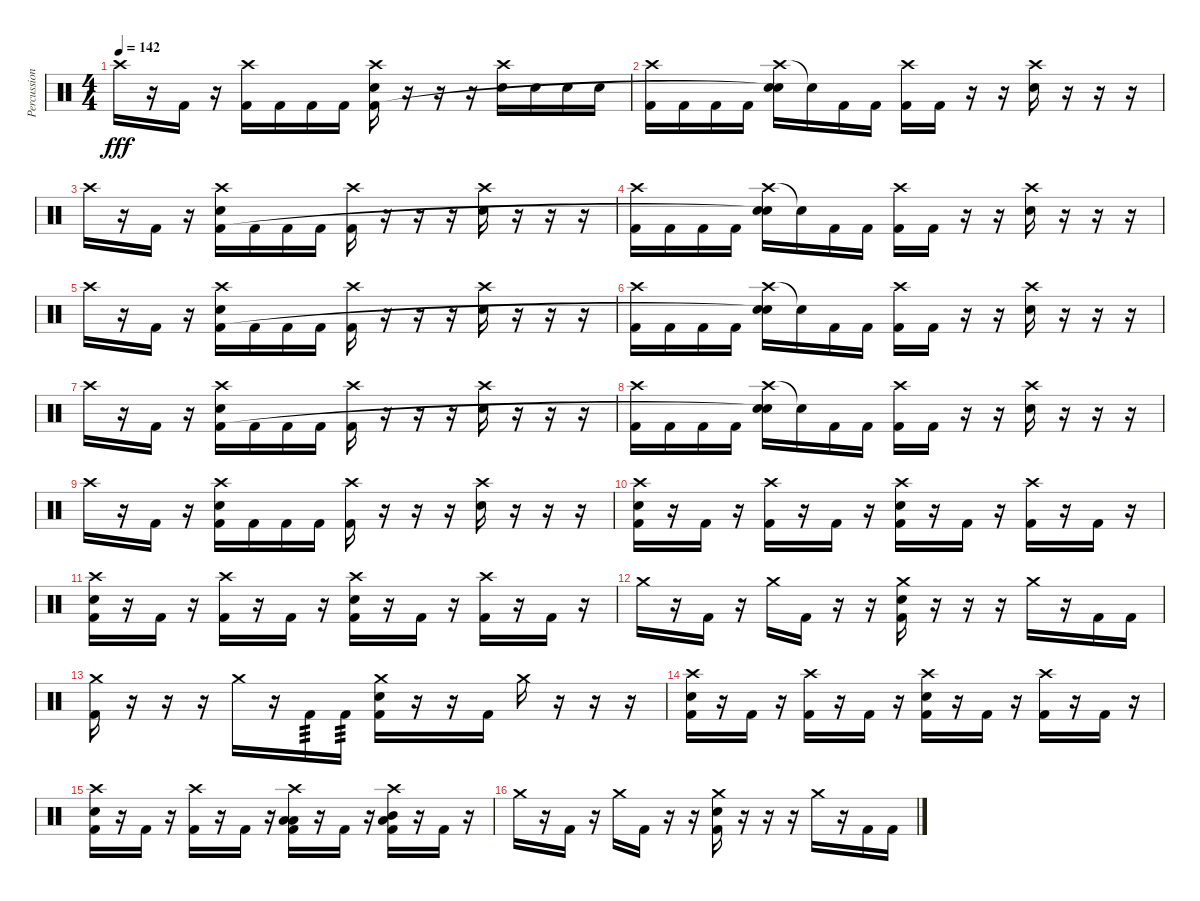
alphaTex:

\track ("Percussion" "Percussion") {instrument percussion}
\staff {score}
\articulation defaults
\ts (4 4)
\tempo 142
\clef neutral
\ks c "Crash high (hit)".16{dy fff}
r.16 "Kick (hit) 2".16 r.16 ("Crash high (hit)" "Kick (hit) 2").16 "Kick (hit) 2".16 "Kick (hit) 2".16 "Kick (hit) 2".16 ("Crash high (hit)" "Electric Snare (hit)" "Kick (hit) 2").16 r.16 r.16 r.16 ("Crash high (hit)" "Electric Snare (hit)").16 "Electric Snare (hit)".16 "Electric Snare (hit)".16 "Electric Snare (hit)".16 |
("Crash high (hit)" "Kick (hit) 2").16 "Kick (hit) 2".16 "Kick (hit) 2".16 "Kick (hit) 2".16 ("Crash high (hit)" "Electric Snare (hit)" "Snare (hit)"{t}).16 "Snare (hit)"{t}.16 "Kick (hit) 2".16 "Kick (hit) 2".16 ("Crash high (hit)" "Kick (hit) 2").16 "Kick (hit) 2".16 r.16 r.16 ("Crash high (hit)" "Electric Snare (hit)").16 r.16 r.16 r.16 |
"Crash high (hit)".16 r.16 "Kick (hit) 2".16 r.16 ("Crash high (hit)" "Electric Snare (hit)" "Kick (hit) 2").16 "Kick (hit) 2".16 "Kick (hit) 2".16 "Kick (hit) 2".16 ("Crash high (hit)" "Kick (hit) 2").16 r.16 r.16 r.16 ("Crash high (hit)" "Electric Snare (hit)").16 r.16 r.16 r.16 |
("Crash high (hit)" "Kick (hit) 2").16 "Kick (hit) 2".16 "Kick (hit) 2".16 "Kick (hit) 2".16 ("Crash high (hit)" "Electric Snare (hit)" "Snare (hit)"{t}).16 "Snare (hit)"{t}.16 "Kick (hit) 2".16 "Kick (hit) 2".16 ("Crash high (hit)" "Kick (hit) 2").16 "Kick (hit) 2".16 r.16 r.16 ("Crash high (hit)" "Electric Snare (hit)").16 r.16 r.16 r.16 |
"Crash high (hit)".16 r.16 "Kick (hit) 2".16 r.16 ("Crash high (hit)" "Electric Snare (hit)" "Kick (hit) 2").16 "Kick (hit) 2".16 "Kick (hit) 2".16 "Kick (hit) 2".16 ("Crash high (hit)" "Kick (hit) 2").16 r.16 r.16 r.16 ("Crash high (hit)" "Electric Snare (hit)").16 r.16 r.16 r.16 |
("Crash high (hit)" "Kick (hit) 2").16 "Kick (hit) 2".16 "Kick (hit) 2".16 "Kick (hit) 2".16 ("Crash high (hit)" "Electric Snare (hit)" "Snare (hit)"{t}).16 "Snare (hit)"{t}.16 "Kick (hit) 2".16 "Kick (hit) 2".16 ("Crash high (hit)" "Kick (hit) 2").16 "Kick (hit) 2".16 r.16 r.16 ("Crash high (hit)" "Electric Snare (hit)").16 r.16 r.16 r.16 |
"Crash high (hit)".16 r.16 "Kick (hit) 2".16 r.16 ("Crash high (hit)" "Electric Snare (hit)" "Kick (hit) 2").16 "Kick (hit) 2".16 "Kick (hit) 2".16 "Kick (hit) 2".16 ("Crash high (hit)" "Kick (hit) 2").16 r.16 r.16 r.16 ("Crash high (hit)" "Electric Snare (hit)").16 r.16 r.16 r.16 |
("Crash high (hit)" "Kick (hit) 2").16 "Kick (hit) 2".16 "Kick (hit) 2".16 "Kick (hit) 2".16 ("Crash high (hit)" "Electric Snare (hit)" "Snare (hit)"{t}).16 "Snare (hit)"{t}.16 "Kick (hit) 2".16 "Kick (hit) 2".16 ("Crash high (hit)" "Kick (hit) 2").16 "Kick (hit) 2".16 r.16 r.16 ("Crash high (hit)" "Electric Snare (hit)").16 r.16 r.16 r.16 |
"Crash high (hit)".16 r.16 "Kick (hit) 2".16 r.16 ("Crash high (hit)" "Electric Snare (hit)" "Kick (hit) 2").16 "Kick (hit) 2".16 "Kick (hit) 2".16 "Kick (hit) 2".16 ("Crash high (hit)" "Kick (hit) 2").16 r.16 r.16 r.16 ("Crash high (hit)" "Electric Snare (hit)").16 r.16 r.16 r.16 |
("Crash high (hit)" "Electric Snare (hit)" "Kick (hit) 2").16 r.16 "Kick (hit) 2".16 r.16 ("Crash high (hit)" "Kick (hit) 2").16 r.16 "Kick (hit) 2".16 r.16 ("Crash high (hit)" "Electric Snare (hit)" "Kick (hit) 2").16 r.16 "Kick (hit) 2".16 r.16 ("Crash high (hit)" "Kick (hit) 2").16 r.16 "Kick (hit) 2".16 r.16 |
("Crash high (hit)" "Electric Snare (hit)" "Kick (hit) 2").16 r.16 "Kick (hit) 2".16 r.16 ("Crash high (hit)" "Kick (hit) 2").16 r.16 "Kick (hit) 2".16 r.16 ("Crash high (hit)" "Electric Snare (hit)" "Kick (hit) 2").16 r.16 "Kick (hit) 2".16 r.16 ("Crash high (hit)" "Kick (hit) 2").16 r.16 "Kick (hit) 2".16 r.16 |
"Crash medium (hit)".16 r.16 "Kick (hit) 2".16 r.16 "Crash medium (hit)".16 "Kick (hit) 2".16 r.16 r.16 ("Crash medium (hit)" "Electric Snare (hit)" "Kick (hit) 2").16 r.16 r.16 r.16 "Crash medium (hit)".16 r.16 "Kick (hit) 2".16 "Kick (hit) 2".16 |
("Crash medium (hit)" "Kick (hit) 2").16 r.16 r.16 r.16 "Crash medium (hit)".16 r.16 "Kick (hit) 2".16{tp 3} "Kick (hit) 2".16{tp 3} ("Crash medium (hit)" "Electric Snare (hit)" "Kick (hit) 2").16 r.16 r.16 "Kick (hit) 2".16 "Crash medium (hit)".16 r.16 r.16 r.16 |
("Crash high (hit)" "Electric Snare (hit)" "Kick (hit) 2").16 r.16 "Kick (hit) 2".16 r.16 ("Crash high (hit)" "Kick (hit) 2").16 r.16 "Kick (hit) 2".16 r.16 ("Crash high (hit)" "Electric Snare (hit)" "Kick (hit) 2").16 r.16 "Kick (hit) 2".16 r.16 ("Crash high (hit)" "Kick (hit) 2").16 r.16 "Kick (hit) 2".16 r.16 |
("Crash high (hit)" "Electric Snare (hit)" "Kick (hit) 2").16 r.16 "Kick (hit) 2".16 r.16 ("Crash high (hit)" "Kick (hit) 2").16 r.16 "Kick (hit) 2".16 r.16 ("Crash high (hit)" "Low Tom (hit)" "Low Floor Tom (hit)" "Kick (hit) 2").16 r.16 "Kick (hit) 2".16 r.16 ("Crash high (hit)" "Low Tom (hit)" "Mid Tom (hit)" "Kick (hit) 2").16 r.16 "Kick (hit) 2".16 r.16 |
"Crash medium (hit)".16 r.16 "Kick (hit) 2".16 r.16 "Crash medium (hit)".16 "Kick (hit) 2".16 r.16 r.16 ("Crash medium (hit)" "Electric Snare (hit)" "Kick (hit) 2").16 r.16 r.16 r.16 "Crash medium (hit)".16 r.16 "Kick (hit) 2".16 "Kick (hit) 2".16
